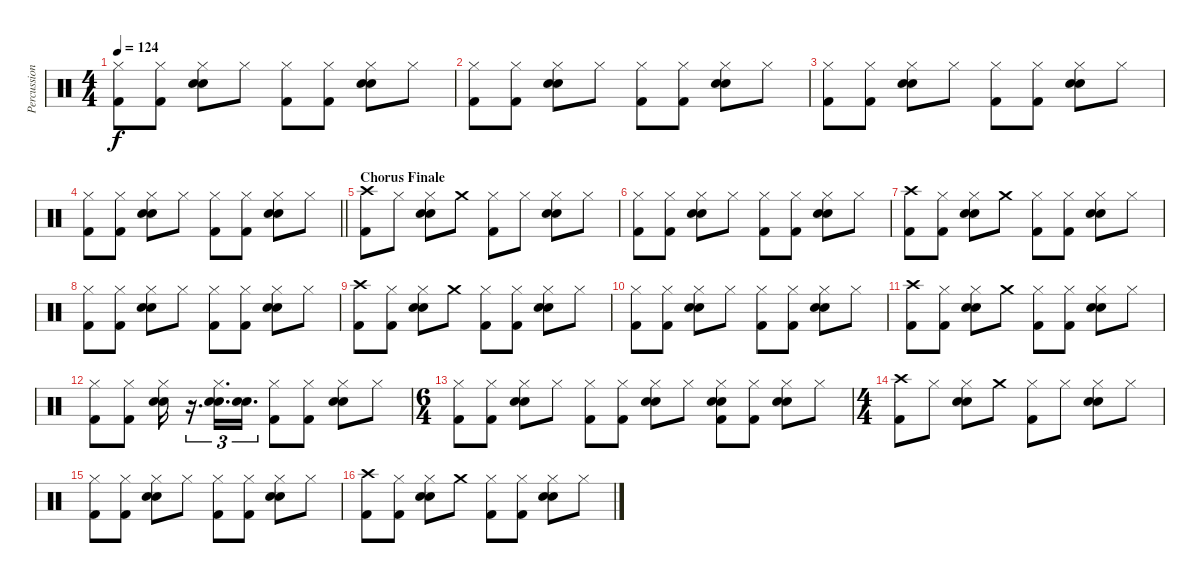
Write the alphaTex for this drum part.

\track ("Percussion" "Percussion") {instrument percussion}
\staff {score}
\articulation defaults
\ts (4 4)
\tempo 124
\clef neutral
\ks c
("Hi-Hat (closed)" "Kick (hit) 2").8{dy f} ("Hi-Hat (closed)" "Kick (hit) 2").8 ("Hi-Hat (closed)" "Snare (hit) 2" "Electric Snare (hit)").8 "Hi-Hat (closed)".8 ("Hi-Hat (closed)" "Kick (hit) 2").8 ("Hi-Hat (closed)" "Kick (hit) 2").8 ("Hi-Hat (closed)" "Snare (hit) 2" "Electric Snare (hit)").8 "Hi-Hat (closed)".8 |
("Hi-Hat (closed)" "Kick (hit) 2").8 ("Hi-Hat (closed)" "Kick (hit) 2").8 ("Hi-Hat (closed)" "Snare (hit) 2" "Electric Snare (hit)").8 "Hi-Hat (closed)".8 ("Hi-Hat (closed)" "Kick (hit) 2").8 ("Hi-Hat (closed)" "Kick (hit) 2").8 ("Hi-Hat (closed)" "Snare (hit) 2" "Electric Snare (hit)").8 "Hi-Hat (closed)".8 |
("Hi-Hat (closed)" "Kick (hit) 2").8 ("Hi-Hat (closed)" "Kick (hit) 2").8 ("Hi-Hat (closed)" "Snare (hit) 2" "Electric Snare (hit)").8 "Hi-Hat (closed)".8 ("Hi-Hat (closed)" "Kick (hit) 2").8 ("Hi-Hat (closed)" "Kick (hit) 2").8 ("Hi-Hat (closed)" "Snare (hit) 2" "Electric Snare (hit)").8 "Hi-Hat (closed)".8 |
\barLineRight lightlight
("Hi-Hat (closed)" "Kick (hit) 2").8 ("Hi-Hat (closed)" "Kick (hit) 2").8 ("Hi-Hat (closed)" "Snare (hit) 2" "Electric Snare (hit)").8 "Hi-Hat (closed)".8 ("Hi-Hat (closed)" "Kick (hit) 2").8 ("Hi-Hat (closed)" "Kick (hit) 2").8 ("Hi-Hat (closed)" "Snare (hit) 2" "Electric Snare (hit)").8 "Hi-Hat (closed)".8 |
\section ("" "Chorus Finale")
("Crash high (hit)" "Kick (hit) 2").8 "Hi-Hat (closed)".8 ("Hi-Hat (closed)" "Snare (hit) 2" "Electric Snare (hit)").8 "Crash medium (hit)".8 ("Hi-Hat (closed)" "Kick (hit) 2").8 "Hi-Hat (closed)".8 ("Hi-Hat (closed)" "Snare (hit) 2" "Electric Snare (hit)").8 "Hi-Hat (closed)".8 |
("Hi-Hat (closed)" "Kick (hit) 2").8 ("Hi-Hat (closed)" "Kick (hit) 2").8 ("Hi-Hat (closed)" "Snare (hit) 2" "Electric Snare (hit)").8 "Hi-Hat (closed)".8 ("Hi-Hat (closed)" "Kick (hit) 2").8 ("Hi-Hat (closed)" "Kick (hit) 2").8 ("Hi-Hat (closed)" "Snare (hit) 2" "Electric Snare (hit)").8 "Hi-Hat (closed)".8 |
("Crash high (hit)" "Kick (hit) 2").8 ("Hi-Hat (closed)" "Kick (hit) 2").8 ("Hi-Hat (closed)" "Snare (hit) 2" "Electric Snare (hit)").8 "Crash medium (hit)".8 ("Hi-Hat (closed)" "Kick (hit) 2").8 ("Hi-Hat (closed)" "Kick (hit) 2").8 ("Hi-Hat (closed)" "Snare (hit) 2" "Electric Snare (hit)").8 "Hi-Hat (closed)".8 |
("Hi-Hat (closed)" "Kick (hit) 2").8 ("Hi-Hat (closed)" "Kick (hit) 2").8 ("Hi-Hat (closed)" "Snare (hit) 2" "Electric Snare (hit)").8 "Hi-Hat (closed)".8 ("Hi-Hat (closed)" "Kick (hit) 2").8 ("Hi-Hat (closed)" "Kick (hit) 2").8 ("Hi-Hat (closed)" "Snare (hit) 2" "Electric Snare (hit)").8 "Hi-Hat (closed)".8 |
("Crash high (hit)" "Kick (hit) 2").8 ("Hi-Hat (closed)" "Kick (hit) 2").8 ("Hi-Hat (closed)" "Snare (hit) 2" "Electric Snare (hit)").8 "Crash medium (hit)".8 ("Hi-Hat (closed)" "Kick (hit) 2").8 ("Hi-Hat (closed)" "Kick (hit) 2").8 ("Hi-Hat (closed)" "Snare (hit) 2" "Electric Snare (hit)").8 "Hi-Hat (closed)".8 |
("Hi-Hat (closed)" "Kick (hit) 2").8 ("Hi-Hat (closed)" "Kick (hit) 2").8 ("Hi-Hat (closed)" "Snare (hit) 2" "Electric Snare (hit)").8 "Hi-Hat (closed)".8 ("Hi-Hat (closed)" "Kick (hit) 2").8 ("Hi-Hat (closed)" "Kick (hit) 2").8 ("Hi-Hat (closed)" "Snare (hit) 2" "Electric Snare (hit)").8 "Hi-Hat (closed)".8 |
("Crash high (hit)" "Kick (hit) 2").8 ("Hi-Hat (closed)" "Kick (hit) 2").8 ("Hi-Hat (closed)" "Snare (hit) 2" "Electric Snare (hit)").8 "Crash medium (hit)".8 ("Hi-Hat (closed)" "Kick (hit) 2").8 ("Hi-Hat (closed)" "Kick (hit) 2").8 ("Hi-Hat (closed)" "Snare (hit) 2" "Electric Snare (hit)").8 "Hi-Hat (closed)".8 |
("Hi-Hat (closed)" "Kick (hit) 2").8 ("Hi-Hat (closed)" "Kick (hit) 2").8 ("Hi-Hat (closed)" "Snare (hit) 2" "Electric Snare (hit)").16 r.16{d tu (3 2)} ("Hi-Hat (closed)" "Snare (hit) 2" "Electric Snare (hit)").16{d tu (3 2)} ("Snare (hit) 2" "Electric Snare (hit)").16{d tu (3 2)} ("Hi-Hat (closed)" "Kick (hit) 2").8 ("Hi-Hat (closed)" "Kick (hit) 2").8 ("Hi-Hat (closed)" "Snare (hit) 2" "Electric Snare (hit)").8 "Hi-Hat (closed)".8 |
\ts (6 4)
("Hi-Hat (closed)" "Kick (hit) 2").8 ("Hi-Hat (closed)" "Kick (hit) 2").8 ("Hi-Hat (closed)" "Snare (hit) 2" "Electric Snare (hit)").8 "Hi-Hat (closed)".8 ("Hi-Hat (closed)" "Kick (hit) 2").8 ("Hi-Hat (closed)" "Kick (hit) 2").8 ("Hi-Hat (closed)" "Snare (hit) 2" "Electric Snare (hit)").8 "Hi-Hat (closed)".8 ("Hi-Hat (closed)" "Snare (hit) 2" "Electric Snare (hit)" "Kick (hit) 2").8 ("Hi-Hat (closed)" "Kick (hit) 2").8 ("Hi-Hat (closed)" "Snare (hit) 2" "Electric Snare (hit)").8 "Hi-Hat (closed)".8 |
\ts (4 4)
("Crash high (hit)" "Kick (hit) 2").8 "Hi-Hat (closed)".8 ("Hi-Hat (closed)" "Snare (hit) 2" "Electric Snare (hit)").8 "Crash medium (hit)".8 ("Hi-Hat (closed)" "Kick (hit) 2").8 "Hi-Hat (closed)".8 ("Hi-Hat (closed)" "Snare (hit) 2" "Electric Snare (hit)").8 "Hi-Hat (closed)".8 |
("Hi-Hat (closed)" "Kick (hit) 2").8 ("Hi-Hat (closed)" "Kick (hit) 2").8 ("Hi-Hat (closed)" "Snare (hit) 2" "Electric Snare (hit)").8 "Hi-Hat (closed)".8 ("Hi-Hat (closed)" "Kick (hit) 2").8 ("Hi-Hat (closed)" "Kick (hit) 2").8 ("Hi-Hat (closed)" "Snare (hit) 2" "Electric Snare (hit)").8 "Hi-Hat (closed)".8 |
("Crash high (hit)" "Kick (hit) 2").8 ("Hi-Hat (closed)" "Kick (hit) 2").8 ("Hi-Hat (closed)" "Snare (hit) 2" "Electric Snare (hit)").8 "Crash medium (hit)".8 ("Hi-Hat (closed)" "Kick (hit) 2").8 ("Hi-Hat (closed)" "Kick (hit) 2").8 ("Hi-Hat (closed)" "Snare (hit) 2" "Electric Snare (hit)").8 "Hi-Hat (closed)".8
